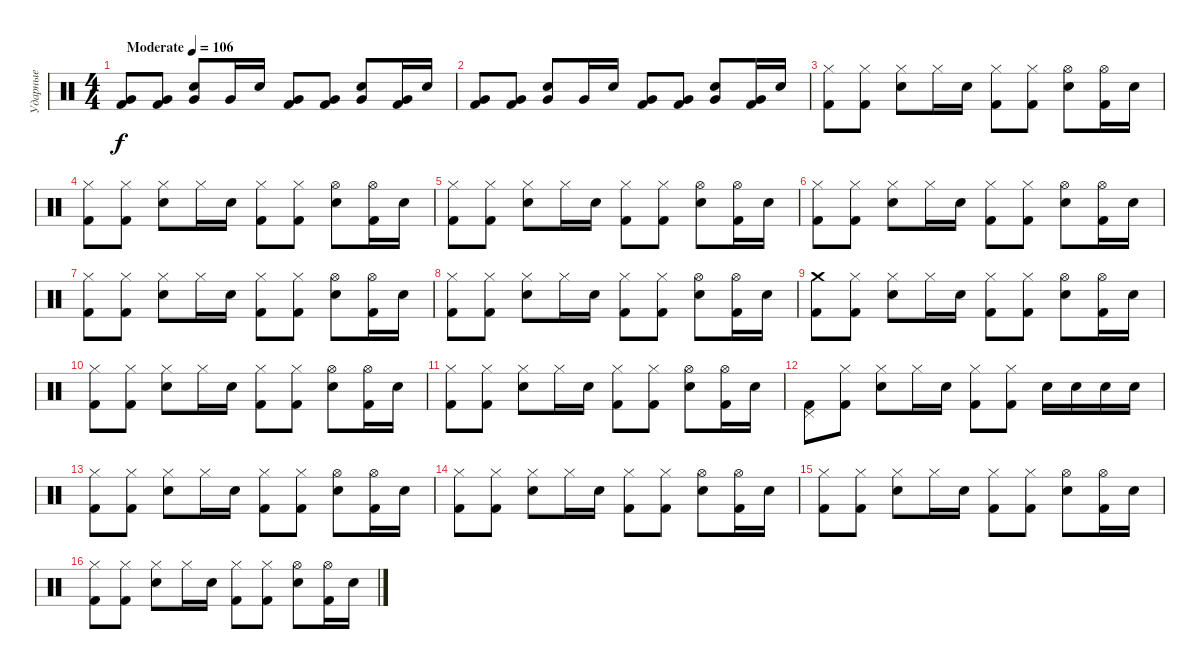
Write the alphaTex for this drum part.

\track ("Ударные" "Ударные") {instrument percussion}
\staff {score}
\articulation defaults
\ts (4 4)
\tempo (106 "Moderate")
\clef neutral
\ks c
("Very Low Tom (hit)" "Kick (hit) 2").8{dy f} ("Very Low Tom (hit)" "Kick (hit) 2").8 ("Electric Snare (hit)" "Very Low Tom (hit)").8 "Very Low Tom (hit)".16 "Electric Snare (hit)".16 ("Very Low Tom (hit)" "Kick (hit) 2").8 ("Very Low Tom (hit)" "Kick (hit) 2").8 ("Electric Snare (hit)" "Very Low Tom (hit)").8 ("Very Low Tom (hit)" "Kick (hit) 2").16 "Electric Snare (hit)".16 |
("Very Low Tom (hit)" "Kick (hit) 2").8 ("Very Low Tom (hit)" "Kick (hit) 2").8 ("Electric Snare (hit)" "Very Low Tom (hit)").8 "Very Low Tom (hit)".16 "Electric Snare (hit)".16 ("Very Low Tom (hit)" "Kick (hit) 2").8 ("Very Low Tom (hit)" "Kick (hit) 2").8 ("Electric Snare (hit)" "Very Low Tom (hit)").8 ("Very Low Tom (hit)" "Kick (hit) 2").16 "Electric Snare (hit)".16 |
("Hi-Hat (closed)" "Kick (hit) 2").8 ("Hi-Hat (closed)" "Kick (hit) 2").8 ("Hi-Hat (closed)" "Electric Snare (hit)").8 "Hi-Hat (closed)".16 "Electric Snare (hit)".16 ("Hi-Hat (closed)" "Kick (hit) 2").8 ("Hi-Hat (closed)" "Kick (hit) 2").8 ("Hi-Hat (open)" "Electric Snare (hit)").8 ("Hi-Hat (open)" "Kick (hit) 2").16 "Electric Snare (hit)".16 |
("Hi-Hat (closed)" "Kick (hit) 2").8 ("Hi-Hat (closed)" "Kick (hit) 2").8 ("Hi-Hat (closed)" "Electric Snare (hit)").8 "Hi-Hat (closed)".16 "Electric Snare (hit)".16 ("Hi-Hat (closed)" "Kick (hit) 2").8 ("Hi-Hat (closed)" "Kick (hit) 2").8 ("Hi-Hat (open)" "Electric Snare (hit)").8 ("Hi-Hat (open)" "Kick (hit) 2").16 "Electric Snare (hit)".16 |
("Hi-Hat (closed)" "Kick (hit) 2").8 ("Hi-Hat (closed)" "Kick (hit) 2").8 ("Hi-Hat (closed)" "Electric Snare (hit)").8 "Hi-Hat (closed)".16 "Electric Snare (hit)".16 ("Hi-Hat (closed)" "Kick (hit) 2").8 ("Hi-Hat (closed)" "Kick (hit) 2").8 ("Hi-Hat (open)" "Electric Snare (hit)").8 ("Hi-Hat (open)" "Kick (hit) 2").16 "Electric Snare (hit)".16 |
("Hi-Hat (closed)" "Kick (hit) 2").8 ("Hi-Hat (closed)" "Kick (hit) 2").8 ("Hi-Hat (closed)" "Electric Snare (hit)").8 "Hi-Hat (closed)".16 "Electric Snare (hit)".16 ("Hi-Hat (closed)" "Kick (hit) 2").8 ("Hi-Hat (closed)" "Kick (hit) 2").8 ("Hi-Hat (open)" "Electric Snare (hit)").8 ("Hi-Hat (open)" "Kick (hit) 2").16 "Electric Snare (hit)".16 |
("Hi-Hat (closed)" "Kick (hit) 2").8 ("Hi-Hat (closed)" "Kick (hit) 2").8 ("Hi-Hat (closed)" "Electric Snare (hit)").8 "Hi-Hat (closed)".16 "Electric Snare (hit)".16 ("Hi-Hat (closed)" "Kick (hit) 2").8 ("Hi-Hat (closed)" "Kick (hit) 2").8 ("Hi-Hat (open)" "Electric Snare (hit)").8 ("Hi-Hat (open)" "Kick (hit) 2").16 "Electric Snare (hit)".16 |
("Hi-Hat (closed)" "Kick (hit) 2").8 ("Hi-Hat (closed)" "Kick (hit) 2").8 ("Hi-Hat (closed)" "Electric Snare (hit)").8 "Hi-Hat (closed)".16 "Electric Snare (hit)".16 ("Hi-Hat (closed)" "Kick (hit) 2").8 ("Hi-Hat (closed)" "Kick (hit) 2").8 ("Hi-Hat (open)" "Electric Snare (hit)").8 ("Hi-Hat (open)" "Kick (hit) 2").16 "Electric Snare (hit)".16 |
("Crash medium (hit)" "Kick (hit) 2").8 ("Hi-Hat (closed)" "Kick (hit) 2").8 ("Hi-Hat (closed)" "Electric Snare (hit)").8 "Hi-Hat (closed)".16 "Electric Snare (hit)".16 ("Hi-Hat (closed)" "Kick (hit) 2").8 ("Hi-Hat (closed)" "Kick (hit) 2").8 ("Hi-Hat (open)" "Electric Snare (hit)").8 ("Hi-Hat (open)" "Kick (hit) 2").16 "Electric Snare (hit)".16 |
("Hi-Hat (closed)" "Kick (hit) 2").8 ("Hi-Hat (closed)" "Kick (hit) 2").8 ("Hi-Hat (closed)" "Electric Snare (hit)").8 "Hi-Hat (closed)".16 "Electric Snare (hit)".16 ("Hi-Hat (closed)" "Kick (hit) 2").8 ("Hi-Hat (closed)" "Kick (hit) 2").8 ("Hi-Hat (open)" "Electric Snare (hit)").8 ("Hi-Hat (open)" "Kick (hit) 2").16 "Electric Snare (hit)".16 |
("Hi-Hat (closed)" "Kick (hit) 2").8 ("Hi-Hat (closed)" "Kick (hit) 2").8 ("Hi-Hat (closed)" "Electric Snare (hit)").8 "Hi-Hat (closed)".16 "Electric Snare (hit)".16 ("Hi-Hat (closed)" "Kick (hit) 2").8 ("Hi-Hat (closed)" "Kick (hit) 2").8 ("Hi-Hat (open)" "Electric Snare (hit)").8 ("Hi-Hat (open)" "Kick (hit) 2").16 "Electric Snare (hit)".16 |
("Pedal Hi-Hat (hit)" "Kick (hit) 2").8 ("Hi-Hat (closed)" "Kick (hit) 2").8 ("Hi-Hat (closed)" "Electric Snare (hit)").8 "Hi-Hat (closed)".16 "Electric Snare (hit)".16 ("Hi-Hat (closed)" "Kick (hit) 2").8 ("Hi-Hat (closed)" "Kick (hit) 2").8 "Electric Snare (hit)".16 "Electric Snare (hit)".16 "Electric Snare (hit)".16 "Electric Snare (hit)".16 |
("Hi-Hat (closed)" "Kick (hit) 2").8 ("Hi-Hat (closed)" "Kick (hit) 2").8 ("Hi-Hat (closed)" "Electric Snare (hit)").8 "Hi-Hat (closed)".16 "Electric Snare (hit)".16 ("Hi-Hat (closed)" "Kick (hit) 2").8 ("Hi-Hat (closed)" "Kick (hit) 2").8 ("Hi-Hat (open)" "Electric Snare (hit)").8 ("Hi-Hat (open)" "Kick (hit) 2").16 "Electric Snare (hit)".16 |
("Hi-Hat (closed)" "Kick (hit) 2").8 ("Hi-Hat (closed)" "Kick (hit) 2").8 ("Hi-Hat (closed)" "Electric Snare (hit)").8 "Hi-Hat (closed)".16 "Electric Snare (hit)".16 ("Hi-Hat (closed)" "Kick (hit) 2").8 ("Hi-Hat (closed)" "Kick (hit) 2").8 ("Hi-Hat (open)" "Electric Snare (hit)").8 ("Hi-Hat (open)" "Kick (hit) 2").16 "Electric Snare (hit)".16 |
("Hi-Hat (closed)" "Kick (hit) 2").8 ("Hi-Hat (closed)" "Kick (hit) 2").8 ("Hi-Hat (closed)" "Electric Snare (hit)").8 "Hi-Hat (closed)".16 "Electric Snare (hit)".16 ("Hi-Hat (closed)" "Kick (hit) 2").8 ("Hi-Hat (closed)" "Kick (hit) 2").8 ("Hi-Hat (open)" "Electric Snare (hit)").8 ("Hi-Hat (open)" "Kick (hit) 2").16 "Electric Snare (hit)".16 |
("Hi-Hat (closed)" "Kick (hit) 2").8 ("Hi-Hat (closed)" "Kick (hit) 2").8 ("Hi-Hat (closed)" "Electric Snare (hit)").8 "Hi-Hat (closed)".16 "Electric Snare (hit)".16 ("Hi-Hat (closed)" "Kick (hit) 2").8 ("Hi-Hat (closed)" "Kick (hit) 2").8 ("Hi-Hat (open)" "Electric Snare (hit)").8 ("Hi-Hat (open)" "Kick (hit) 2").16 "Electric Snare (hit)".16
